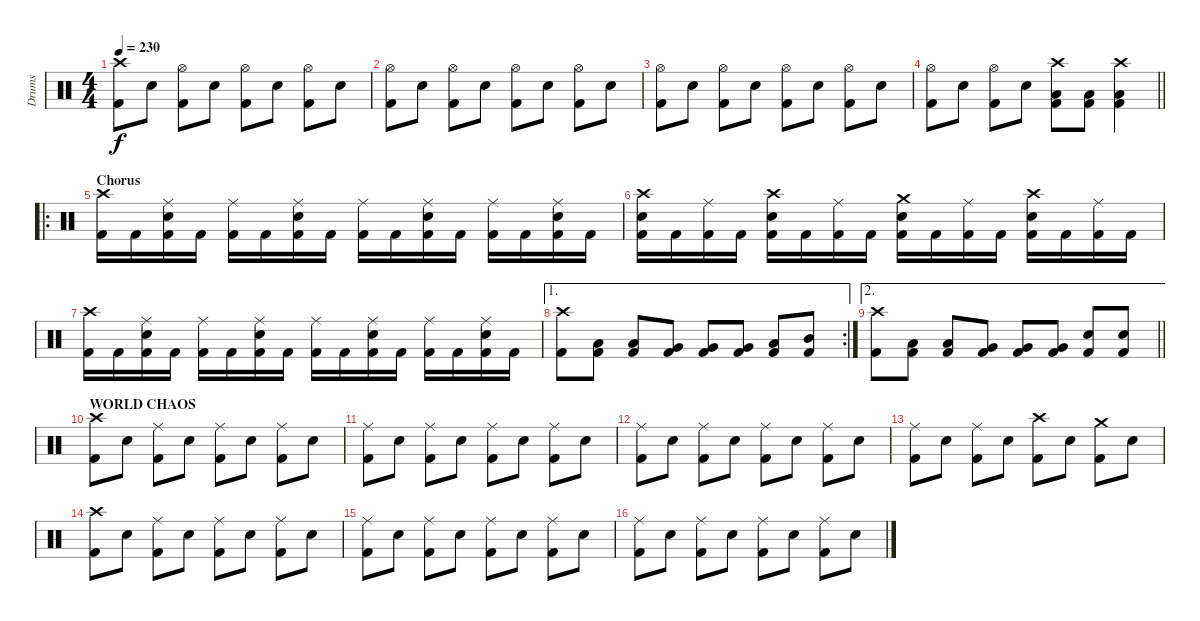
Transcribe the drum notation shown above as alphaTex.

\track ("Drums" "Drums") {instrument percussion}
\staff {score}
\articulation defaults
\ts (4 4)
\tempo 230
\clef neutral
\ks c
("Crash high (hit)" "Kick (hit) 2").8{dy f} "Electric Snare (hit)".8 ("Hi-Hat (open)" "Kick (hit) 2").8 "Electric Snare (hit)".8 ("Hi-Hat (open)" "Kick (hit) 2").8 "Electric Snare (hit)".8 ("Hi-Hat (open)" "Kick (hit) 2").8 "Electric Snare (hit)".8 |
("Hi-Hat (open)" "Kick (hit) 2").8 "Electric Snare (hit)".8 ("Hi-Hat (open)" "Kick (hit) 2").8 "Electric Snare (hit)".8 ("Hi-Hat (open)" "Kick (hit) 2").8 "Electric Snare (hit)".8 ("Hi-Hat (open)" "Kick (hit) 2").8 "Electric Snare (hit)".8 |
("Hi-Hat (open)" "Kick (hit) 2").8 "Electric Snare (hit)".8 ("Hi-Hat (open)" "Kick (hit) 2").8 "Electric Snare (hit)".8 ("Hi-Hat (open)" "Kick (hit) 2").8 "Electric Snare (hit)".8 ("Hi-Hat (open)" "Kick (hit) 2").8 "Electric Snare (hit)".8 |
\barLineRight lightlight
("Hi-Hat (open)" "Kick (hit) 2").8 "Electric Snare (hit)".8 ("Hi-Hat (open)" "Kick (hit) 2").8 "Electric Snare (hit)".8 ("Crash high (hit)" "Low Tom (hit)" "Kick (hit) 2").8 ("Low Tom (hit)" "Kick (hit) 2").8 ("Crash high (hit)" "Low Tom (hit)" "Kick (hit) 2").4 |
\ro
\section ("" "Chorus")
("Crash high (hit)" "Kick (hit) 2").16 "Kick (hit) 2".16 ("Ride (middle)" "Electric Snare (hit)" "Kick (hit) 2").16 "Kick (hit) 2".16 ("Ride (middle)" "Kick (hit) 2").16 "Kick (hit) 2".16 ("Ride (middle)" "Electric Snare (hit)" "Kick (hit) 2").16 "Kick (hit) 2".16 ("Ride (middle)" "Kick (hit) 2").16 "Kick (hit) 2".16 ("Ride (middle)" "Electric Snare (hit)" "Kick (hit) 2").16 "Kick (hit) 2".16 ("Ride (middle)" "Kick (hit) 2").16 "Kick (hit) 2".16 ("Ride (middle)" "Electric Snare (hit)" "Kick (hit) 2").16 "Kick (hit) 2".16 |
("Crash high (hit)" "Electric Snare (hit)" "Kick (hit) 2").16 "Kick (hit) 2".16 ("Ride (middle)" "Kick (hit) 2").16 "Kick (hit) 2".16 ("Crash high (hit)" "Electric Snare (hit)" "Kick (hit) 2").16 "Kick (hit) 2".16 ("Ride (middle)" "Kick (hit) 2").16 "Kick (hit) 2".16 ("Crash medium (hit)" "Electric Snare (hit)" "Kick (hit) 2").16 "Kick (hit) 2".16 ("Ride (middle)" "Kick (hit) 2").16 "Kick (hit) 2".16 ("Crash high (hit)" "Electric Snare (hit)" "Kick (hit) 2").16 "Kick (hit) 2".16 ("Ride (middle)" "Kick (hit) 2").16 "Kick (hit) 2".16 |
("Crash high (hit)" "Kick (hit) 2").16 "Kick (hit) 2".16 ("Ride (middle)" "Electric Snare (hit)" "Kick (hit) 2").16 "Kick (hit) 2".16 ("Ride (middle)" "Kick (hit) 2").16 "Kick (hit) 2".16 ("Ride (middle)" "Electric Snare (hit)" "Kick (hit) 2").16 "Kick (hit) 2".16 ("Ride (middle)" "Kick (hit) 2").16 "Kick (hit) 2".16 ("Ride (middle)" "Electric Snare (hit)" "Kick (hit) 2").16 "Kick (hit) 2".16 ("Ride (middle)" "Kick (hit) 2").16 "Kick (hit) 2".16 ("Ride (middle)" "Electric Snare (hit)" "Kick (hit) 2").16 "Kick (hit) 2".16 |
\ae 1
\rc 2
("Crash high (hit)" "Kick (hit) 2").8 ("Low Tom (hit)" "Kick (hit) 2").8 ("Low Tom (hit)" "Kick (hit) 2").8 ("Very Low Tom (hit)" "Kick (hit) 2").8 ("Very Low Tom (hit)" "Kick (hit) 2").8 ("Very Low Tom (hit)" "Kick (hit) 2").8 ("Low Tom (hit)" "Kick (hit) 2").8 ("Mid Tom (hit)" "Kick (hit) 2").8 |
\ae 2
\barLineRight lightlight
("Crash high (hit)" "Kick (hit) 2").8 ("Low Tom (hit)" "Kick (hit) 2").8 ("Low Tom (hit)" "Kick (hit) 2").8 ("Very Low Tom (hit)" "Kick (hit) 2").8 ("Very Low Tom (hit)" "Kick (hit) 2").8 ("Very Low Tom (hit)" "Kick (hit) 2").8 ("Electric Snare (hit)" "Kick (hit) 2").8 ("Electric Snare (hit)" "Kick (hit) 2").8 |
\section ("" "WORLD CHAOS")
("Crash high (hit)" "Kick (hit) 2").8 "Electric Snare (hit)".8 ("Ride (middle)" "Kick (hit) 2").8 "Electric Snare (hit)".8 ("Ride (middle)" "Kick (hit) 2").8 "Electric Snare (hit)".8 ("Ride (middle)" "Kick (hit) 2").8 "Electric Snare (hit)".8 |
("Ride (middle)" "Kick (hit) 2").8 "Electric Snare (hit)".8 ("Ride (middle)" "Kick (hit) 2").8 "Electric Snare (hit)".8 ("Ride (middle)" "Kick (hit) 2").8 "Electric Snare (hit)".8 ("Ride (middle)" "Kick (hit) 2").8 "Electric Snare (hit)".8 |
("Ride (middle)" "Kick (hit) 2").8 "Electric Snare (hit)".8 ("Ride (middle)" "Kick (hit) 2").8 "Electric Snare (hit)".8 ("Ride (middle)" "Kick (hit) 2").8 "Electric Snare (hit)".8 ("Ride (middle)" "Kick (hit) 2").8 "Electric Snare (hit)".8 |
("Ride (middle)" "Kick (hit) 2").8 "Electric Snare (hit)".8 ("Ride (middle)" "Kick (hit) 2").8 "Electric Snare (hit)".8 ("Crash high (hit)" "Kick (hit) 2").8 "Electric Snare (hit)".8 ("Crash medium (hit)" "Kick (hit) 2").8 "Electric Snare (hit)".8 |
("Crash high (hit)" "Kick (hit) 2").8 "Electric Snare (hit)".8 ("Ride (middle)" "Kick (hit) 2").8 "Electric Snare (hit)".8 ("Ride (middle)" "Kick (hit) 2").8 "Electric Snare (hit)".8 ("Ride (middle)" "Kick (hit) 2").8 "Electric Snare (hit)".8 |
("Ride (middle)" "Kick (hit) 2").8 "Electric Snare (hit)".8 ("Ride (middle)" "Kick (hit) 2").8 "Electric Snare (hit)".8 ("Ride (middle)" "Kick (hit) 2").8 "Electric Snare (hit)".8 ("Ride (middle)" "Kick (hit) 2").8 "Electric Snare (hit)".8 |
("Ride (middle)" "Kick (hit) 2").8 "Electric Snare (hit)".8 ("Ride (middle)" "Kick (hit) 2").8 "Electric Snare (hit)".8 ("Ride (middle)" "Kick (hit) 2").8 "Electric Snare (hit)".8 ("Ride (middle)" "Kick (hit) 2").8 "Electric Snare (hit)".8
